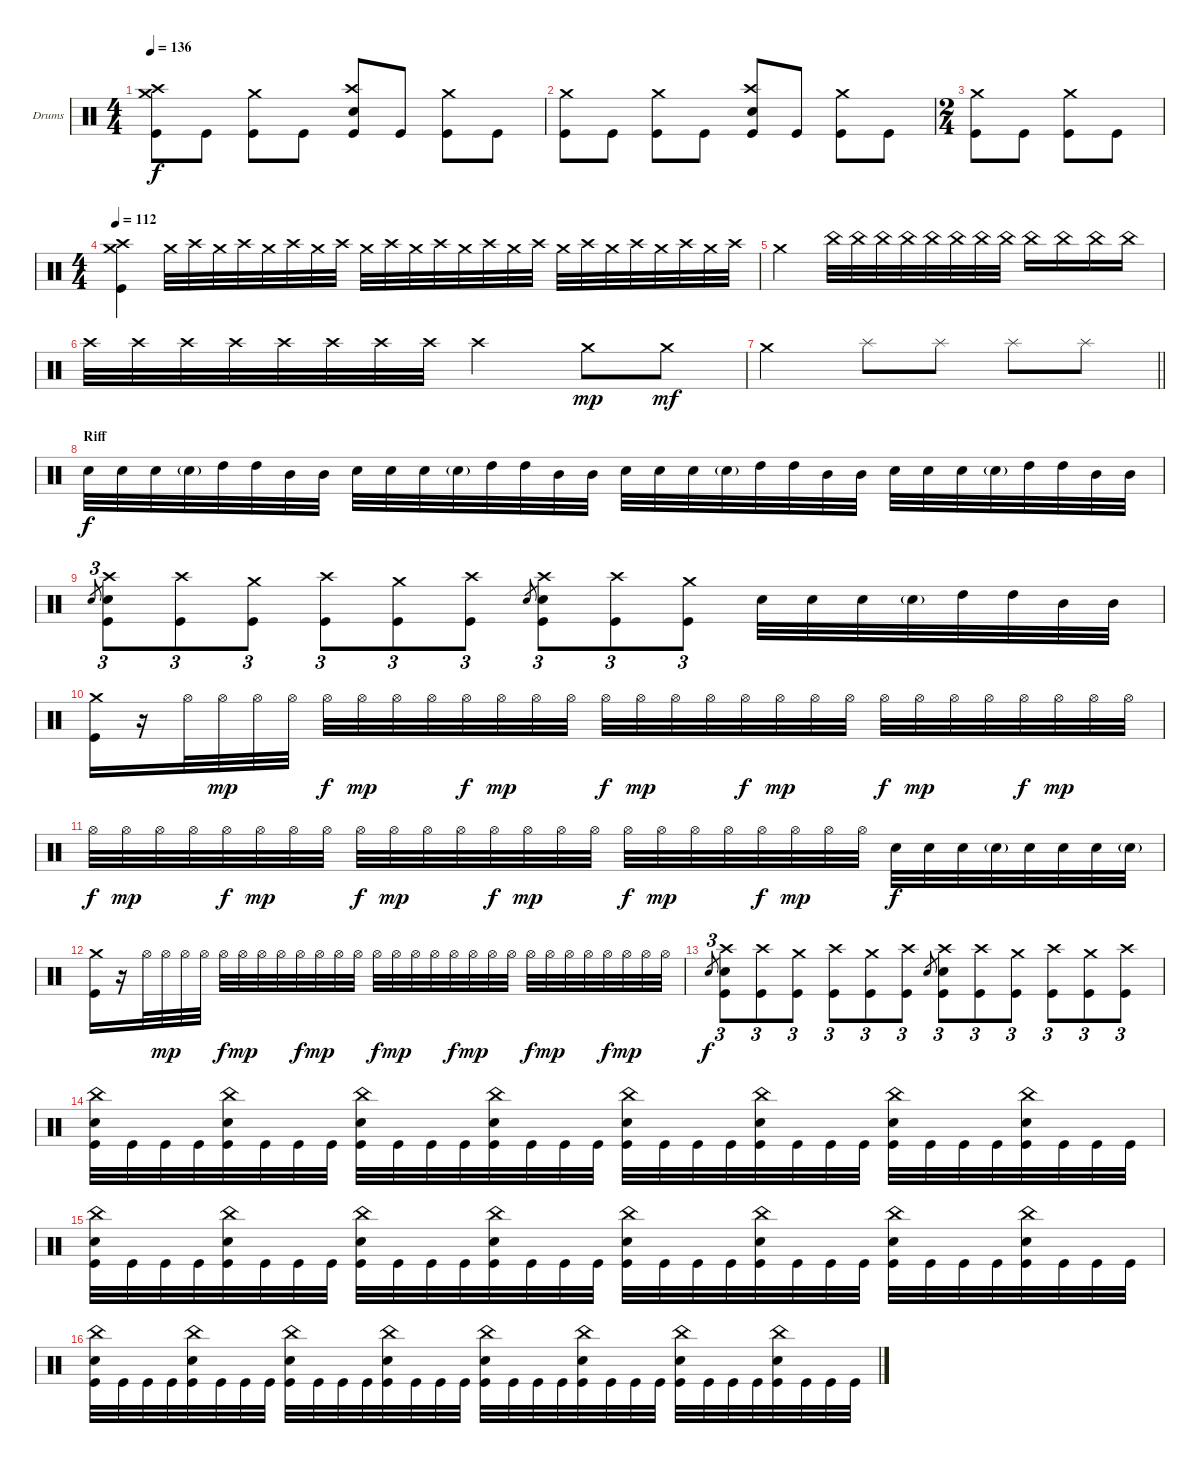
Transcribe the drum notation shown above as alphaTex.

\bracketExtendMode groupsimilarinstruments
\firstSystemTrackNameOrientation horizontal
\otherSystemsTrackNameOrientation horizontal
\track ("Drumkit" "Drums") {instrument percussion}
\staff {score}
\articulation defaults
\ts (4 4)
\tempo 136
\clef neutral
\scale
0.333333
\ks c
("Kick (hit)" "Crash medium (hit)" "Crash high (hit)").8{dy f} "Kick (hit)".8 ("Crash medium (hit)" "Kick (hit)").8 "Kick (hit)".8 ("Snare (hit) 2" "Crash high (hit)" "Kick (hit)").8 "Kick (hit)".8 ("Crash medium (hit)" "Kick (hit)").8 "Kick (hit)".8 |
\scale
0.217054 ("Kick (hit)" "Crash medium (hit)").8 "Kick (hit)".8 ("Crash medium (hit)" "Kick (hit)").8 "Kick (hit)".8 ("Snare (hit) 2" "Crash high (hit)" "Kick (hit)").8 "Kick (hit)".8 ("Crash medium (hit)" "Kick (hit)").8 "Kick (hit)".8 |
\ts (2 4)
\scale
0.391473 ("Kick (hit)" "Crash medium (hit)").8 "Kick (hit)".8 ("Crash medium (hit)" "Kick (hit)").8 "Kick (hit)".8 |
\ts (4 4)
\tempo 112
\scale
0.391473 ("Kick (hit)" "Crash medium (hit)" "Crash high (hit)").4 "Crash medium (hit)".32 "Crash high (hit)".32 "Crash medium (hit)".32 "Crash high (hit)".32 "Crash medium (hit)".32 "Crash high (hit)".32 "Crash medium (hit)".32 "Crash high (hit)".32 "Crash medium (hit)".32 "Crash high (hit)".32 "Crash medium (hit)".32 "Crash high (hit)".32 "Crash medium (hit)".32 "Crash high (hit)".32 "Crash medium (hit)".32 "Crash high (hit)".32 "Crash medium (hit)".32 "Crash high (hit)".32 "Crash medium (hit)".32 "Crash high (hit)".32 "Crash medium (hit)".32 "Crash high (hit)".32 "Crash medium (hit)".32 "Crash high (hit)".32 |
\scale
0.333333 "Crash medium (hit)".2 "China (hit)".32 "China (hit)".32 "China (hit)".32 "China (hit)".32 "China (hit)".32 "China (hit)".32 "China (hit)".32 "China (hit)".32 "China (hit)".16 "China (hit)".16 "China (hit)".16 "China (hit)".16 |
\scale
0.333333 "Crash high (hit)".32 "Crash high (hit)".32 "Crash high (hit)".32 "Crash high (hit)".32 "Crash high (hit)".32 "Crash high (hit)".32 "Crash high (hit)".32 "Crash high (hit)".32 "Crash high (hit)".2 "Crash medium (hit)".8{dy mp} "Crash medium (hit)".8{dy mf} |
\scale
0.333333
\barLineRight lightlight "Crash medium (hit)".2 "Splash (hit)".8 "Splash (hit)".8 "Splash (hit)".8 "Splash (hit)".8
|
\section ("" "Riff")
\scale
0.333333 "Snare (hit) 2".32{dy f} "Snare (hit) 2".32 "Snare (hit) 2".32 "Snare (hit) 2"{g}.32 "High Tom (hit)".32 "High Tom (hit)".32 "Mid Tom (hit)".32 "Mid Tom (hit)".32 "Snare (hit) 2".32 "Snare (hit) 2".32 "Snare (hit) 2".32 "Snare (hit) 2"{g}.32 "High Tom (hit)".32 "High Tom (hit)".32 "Mid Tom (hit)".32 "Mid Tom (hit)".32 "Snare (hit) 2".32 "Snare (hit) 2".32 "Snare (hit) 2".32 "Snare (hit) 2"{g}.32 "High Tom (hit)".32 "High Tom (hit)".32 "Mid Tom (hit)".32 "Mid Tom (hit)".32 "Snare (hit) 2".32 "Snare (hit) 2".32 "Snare (hit) 2".32 "Snare (hit) 2"{g}.32 "High Tom (hit)".32 "High Tom (hit)".32 "Mid Tom (hit)".32 "Mid Tom (hit)".32 |
\scale
0.333333 "Snare (hit) 2".8{tu (3 2) gr} ("Kick (hit)" "Crash high (hit)" "Snare (hit) 2").8{tu (3 2)} ("Kick (hit)" "Crash high (hit)").8{tu (3 2)} ("Kick (hit)" "Crash medium (hit)").8{tu (3 2)} ("Kick (hit)" "Crash high (hit)").8{tu (3 2)} ("Kick (hit)" "Crash medium (hit)").8{tu (3 2)} ("Kick (hit)" "Crash high (hit)").8{tu (3 2)} "Snare (hit) 2".8{tu (3 2) gr} ("Kick (hit)" "Crash high (hit)" "Snare (hit) 2").8{tu (3 2)} ("Kick (hit)" "Crash high (hit)").8{tu (3 2)} ("Kick (hit)" "Crash medium (hit)").8{tu (3 2)} "Snare (hit) 2".32 "Snare (hit) 2".32 "Snare (hit) 2".32 "Snare (hit) 2"{g}.32 "High Tom (hit)".32 "High Tom (hit)".32 "Mid Tom (hit)".32 "Mid Tom (hit)".32 |
\scale
0.333333 ("Crash medium (hit)" "Kick (hit)").16 r.16 "Hi-Hat (open)".32 "Hi-Hat (open)".32{dy mp} "Hi-Hat (open)".32 "Hi-Hat (open)".32 "Hi-Hat (open)".32{dy f} "Hi-Hat (open)".32{dy mp} "Hi-Hat (open)".32 "Hi-Hat (open)".32 "Hi-Hat (open)".32{dy f} "Hi-Hat (open)".32{dy mp} "Hi-Hat (open)".32 "Hi-Hat (open)".32 "Hi-Hat (open)".32{dy f} "Hi-Hat (open)".32{dy mp} "Hi-Hat (open)".32 "Hi-Hat (open)".32 "Hi-Hat (open)".32{dy f} "Hi-Hat (open)".32{dy mp} "Hi-Hat (open)".32 "Hi-Hat (open)".32 "Hi-Hat (open)".32{dy f} "Hi-Hat (open)".32{dy mp} "Hi-Hat (open)".32 "Hi-Hat (open)".32 "Hi-Hat (open)".32{dy f} "Hi-Hat (open)".32{dy mp} "Hi-Hat (open)".32 "Hi-Hat (open)".32 |
\scale
0.333333 "Hi-Hat (open)".32{dy f} "Hi-Hat (open)".32{dy mp} "Hi-Hat (open)".32 "Hi-Hat (open)".32 "Hi-Hat (open)".32{dy f} "Hi-Hat (open)".32{dy mp} "Hi-Hat (open)".32 "Hi-Hat (open)".32 "Hi-Hat (open)".32{dy f} "Hi-Hat (open)".32{dy mp} "Hi-Hat (open)".32 "Hi-Hat (open)".32 "Hi-Hat (open)".32{dy f} "Hi-Hat (open)".32{dy mp} "Hi-Hat (open)".32 "Hi-Hat (open)".32 "Hi-Hat (open)".32{dy f} "Hi-Hat (open)".32{dy mp} "Hi-Hat (open)".32 "Hi-Hat (open)".32 "Hi-Hat (open)".32{dy f} "Hi-Hat (open)".32{dy mp} "Hi-Hat (open)".32 "Hi-Hat (open)".32 "Snare (hit) 2".32{dy f} "Snare (hit) 2".32 "Snare (hit) 2".32 "Snare (hit) 2"{g}.32 "Snare (hit) 2".32 "Snare (hit) 2".32 "Snare (hit) 2".32 "Snare (hit) 2"{g}.32 |
\scale
0.333333 ("Crash medium (hit)" "Kick (hit)").16 r.16 "Hi-Hat (open)".32 "Hi-Hat (open)".32{dy mp} "Hi-Hat (open)".32 "Hi-Hat (open)".32 "Hi-Hat (open)".32{dy f} "Hi-Hat (open)".32{dy mp} "Hi-Hat (open)".32 "Hi-Hat (open)".32 "Hi-Hat (open)".32{dy f} "Hi-Hat (open)".32{dy mp} "Hi-Hat (open)".32 "Hi-Hat (open)".32 "Hi-Hat (open)".32{dy f} "Hi-Hat (open)".32{dy mp} "Hi-Hat (open)".32 "Hi-Hat (open)".32 "Hi-Hat (open)".32{dy f} "Hi-Hat (open)".32{dy mp} "Hi-Hat (open)".32 "Hi-Hat (open)".32 "Hi-Hat (open)".32{dy f} "Hi-Hat (open)".32{dy mp} "Hi-Hat (open)".32 "Hi-Hat (open)".32 "Hi-Hat (open)".32{dy f} "Hi-Hat (open)".32{dy mp} "Hi-Hat (open)".32 "Hi-Hat (open)".32 |
\scale
0.333333 "Snare (hit) 2".8{tu (3 2) gr dy f} ("Kick (hit)" "Crash high (hit)" "Snare (hit) 2").8{tu (3 2)} ("Kick (hit)" "Crash high (hit)").8{tu (3 2)} ("Kick (hit)" "Crash medium (hit)").8{tu (3 2)} ("Kick (hit)" "Crash high (hit)").8{tu (3 2)} ("Kick (hit)" "Crash medium (hit)").8{tu (3 2)} ("Kick (hit)" "Crash high (hit)").8{tu (3 2)} "Snare (hit) 2".8{tu (3 2) gr} ("Kick (hit)" "Crash high (hit)" "Snare (hit) 2").8{tu (3 2)} ("Kick (hit)" "Crash high (hit)").8{tu (3 2)} ("Kick (hit)" "Crash medium (hit)").8{tu (3 2)} ("Kick (hit)" "Crash high (hit)").8{tu (3 2)} ("Kick (hit)" "Crash medium (hit)").8{tu (3 2)} ("Kick (hit)" "Crash high (hit)").8{tu (3 2)} |
\scale
0.333333 ("Kick (hit)" "China (hit)" "Snare (hit) 2").32 "Kick (hit)".32 "Kick (hit)".32 "Kick (hit)".32 ("Kick (hit)" "China (hit)" "Snare (hit) 2").32 "Kick (hit)".32 "Kick (hit)".32 "Kick (hit)".32 ("Kick (hit)" "China (hit)" "Snare (hit) 2").32 "Kick (hit)".32 "Kick (hit)".32 "Kick (hit)".32 ("Kick (hit)" "China (hit)" "Snare (hit) 2").32 "Kick (hit)".32 "Kick (hit)".32 "Kick (hit)".32 ("Kick (hit)" "China (hit)" "Snare (hit) 2").32 "Kick (hit)".32 "Kick (hit)".32 "Kick (hit)".32 ("Kick (hit)" "China (hit)" "Snare (hit) 2").32 "Kick (hit)".32 "Kick (hit)".32 "Kick (hit)".32 ("Kick (hit)" "China (hit)" "Snare (hit) 2").32 "Kick (hit)".32 "Kick (hit)".32 "Kick (hit)".32 ("Kick (hit)" "China (hit)" "Snare (hit) 2").32 "Kick (hit)".32 "Kick (hit)".32 "Kick (hit)".32 |
\scale
0.333333 ("Kick (hit)" "China (hit)" "Snare (hit) 2").32 "Kick (hit)".32 "Kick (hit)".32 "Kick (hit)".32 ("Kick (hit)" "China (hit)" "Snare (hit) 2").32 "Kick (hit)".32 "Kick (hit)".32 "Kick (hit)".32 ("Kick (hit)" "China (hit)" "Snare (hit) 2").32 "Kick (hit)".32 "Kick (hit)".32 "Kick (hit)".32 ("Kick (hit)" "China (hit)" "Snare (hit) 2").32 "Kick (hit)".32 "Kick (hit)".32 "Kick (hit)".32 ("Kick (hit)" "China (hit)" "Snare (hit) 2").32 "Kick (hit)".32 "Kick (hit)".32 "Kick (hit)".32 ("Kick (hit)" "China (hit)" "Snare (hit) 2").32 "Kick (hit)".32 "Kick (hit)".32 "Kick (hit)".32 ("Kick (hit)" "China (hit)" "Snare (hit) 2").32 "Kick (hit)".32 "Kick (hit)".32 "Kick (hit)".32 ("Kick (hit)" "China (hit)" "Snare (hit) 2").32 "Kick (hit)".32 "Kick (hit)".32 "Kick (hit)".32 |
\scale
0.333333 ("Kick (hit)" "China (hit)" "Snare (hit) 2").32 "Kick (hit)".32 "Kick (hit)".32 "Kick (hit)".32 ("Kick (hit)" "China (hit)" "Snare (hit) 2").32 "Kick (hit)".32 "Kick (hit)".32 "Kick (hit)".32 ("Kick (hit)" "China (hit)" "Snare (hit) 2").32 "Kick (hit)".32 "Kick (hit)".32 "Kick (hit)".32 ("Kick (hit)" "China (hit)" "Snare (hit) 2").32 "Kick (hit)".32 "Kick (hit)".32 "Kick (hit)".32 ("Kick (hit)" "China (hit)" "Snare (hit) 2").32 "Kick (hit)".32 "Kick (hit)".32 "Kick (hit)".32 ("Kick (hit)" "China (hit)" "Snare (hit) 2").32 "Kick (hit)".32 "Kick (hit)".32 "Kick (hit)".32 ("Kick (hit)" "China (hit)" "Snare (hit) 2").32 "Kick (hit)".32 "Kick (hit)".32 "Kick (hit)".32 ("Kick (hit)" "China (hit)" "Snare (hit) 2").32 "Kick (hit)".32 "Kick (hit)".32 "Kick (hit)".32
